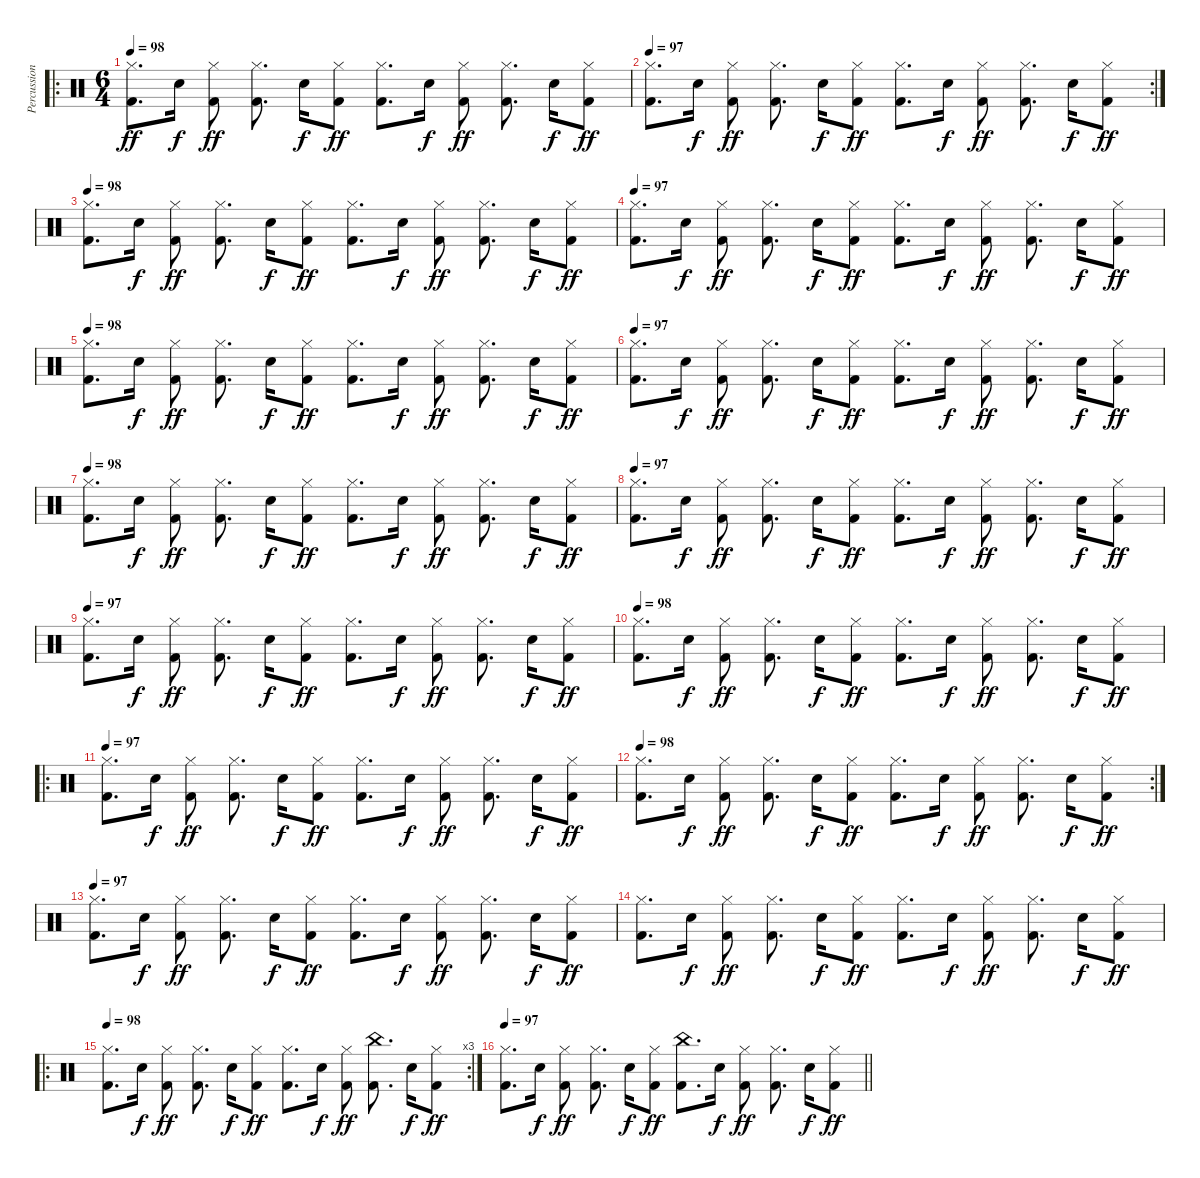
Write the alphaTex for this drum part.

\track ("Percussion" "Percussion") {instrument percussion}
\staff {score}
\articulation defaults
\ro
\ts (6 4)
\tempo 98
\clef neutral
\ks c
("Hi-Hat (closed)" "Kick (hit) 2").8{d dy ff} "Electric Snare (hit)".16{dy f} ("Hi-Hat (closed)" "Kick (hit) 2").8{dy ff beam split} ("Hi-Hat (closed)" "Kick (hit) 2").8{d} "Electric Snare (hit)".16{dy f} ("Hi-Hat (closed)" "Kick (hit) 2").8{dy ff} ("Hi-Hat (closed)" "Kick (hit) 2").8{d} "Electric Snare (hit)".16{dy f} ("Hi-Hat (closed)" "Kick (hit) 2").8{dy ff beam split} ("Hi-Hat (closed)" "Kick (hit) 2").8{d} "Electric Snare (hit)".16{dy f} ("Hi-Hat (closed)" "Kick (hit) 2").8{dy ff} |
\rc 2
\tempo 97
("Hi-Hat (closed)" "Kick (hit) 2").8{d} "Electric Snare (hit)".16{dy f} ("Hi-Hat (closed)" "Kick (hit) 2").8{dy ff beam split} ("Hi-Hat (closed)" "Kick (hit) 2").8{d} "Electric Snare (hit)".16{dy f} ("Hi-Hat (closed)" "Kick (hit) 2").8{dy ff} ("Hi-Hat (closed)" "Kick (hit) 2").8{d} "Electric Snare (hit)".16{dy f} ("Hi-Hat (closed)" "Kick (hit) 2").8{dy ff beam split} ("Hi-Hat (closed)" "Kick (hit) 2").8{d} "Electric Snare (hit)".16{dy f} ("Hi-Hat (closed)" "Kick (hit) 2").8{dy ff} |
\tempo 98
("Hi-Hat (closed)" "Kick (hit) 2").8{d} "Electric Snare (hit)".16{dy f} ("Hi-Hat (closed)" "Kick (hit) 2").8{dy ff beam split} ("Hi-Hat (closed)" "Kick (hit) 2").8{d} "Electric Snare (hit)".16{dy f} ("Hi-Hat (closed)" "Kick (hit) 2").8{dy ff} ("Hi-Hat (closed)" "Kick (hit) 2").8{d} "Electric Snare (hit)".16{dy f} ("Hi-Hat (closed)" "Kick (hit) 2").8{dy ff beam split} ("Hi-Hat (closed)" "Kick (hit) 2").8{d} "Electric Snare (hit)".16{dy f} ("Hi-Hat (closed)" "Kick (hit) 2").8{dy ff} |
\tempo 97
("Hi-Hat (closed)" "Kick (hit) 2").8{d} "Electric Snare (hit)".16{dy f} ("Hi-Hat (closed)" "Kick (hit) 2").8{dy ff beam split} ("Hi-Hat (closed)" "Kick (hit) 2").8{d} "Electric Snare (hit)".16{dy f} ("Hi-Hat (closed)" "Kick (hit) 2").8{dy ff} ("Hi-Hat (closed)" "Kick (hit) 2").8{d} "Electric Snare (hit)".16{dy f} ("Hi-Hat (closed)" "Kick (hit) 2").8{dy ff beam split} ("Hi-Hat (closed)" "Kick (hit) 2").8{d} "Electric Snare (hit)".16{dy f} ("Hi-Hat (closed)" "Kick (hit) 2").8{dy ff} |
\tempo 98
("Hi-Hat (closed)" "Kick (hit) 2").8{d} "Electric Snare (hit)".16{dy f} ("Hi-Hat (closed)" "Kick (hit) 2").8{dy ff beam split} ("Hi-Hat (closed)" "Kick (hit) 2").8{d} "Electric Snare (hit)".16{dy f} ("Hi-Hat (closed)" "Kick (hit) 2").8{dy ff} ("Hi-Hat (closed)" "Kick (hit) 2").8{d} "Electric Snare (hit)".16{dy f} ("Hi-Hat (closed)" "Kick (hit) 2").8{dy ff beam split} ("Hi-Hat (closed)" "Kick (hit) 2").8{d} "Electric Snare (hit)".16{dy f} ("Hi-Hat (closed)" "Kick (hit) 2").8{dy ff} |
\tempo 97
("Hi-Hat (closed)" "Kick (hit) 2").8{d} "Electric Snare (hit)".16{dy f} ("Hi-Hat (closed)" "Kick (hit) 2").8{dy ff beam split} ("Hi-Hat (closed)" "Kick (hit) 2").8{d} "Electric Snare (hit)".16{dy f} ("Hi-Hat (closed)" "Kick (hit) 2").8{dy ff} ("Hi-Hat (closed)" "Kick (hit) 2").8{d} "Electric Snare (hit)".16{dy f} ("Hi-Hat (closed)" "Kick (hit) 2").8{dy ff beam split} ("Hi-Hat (closed)" "Kick (hit) 2").8{d} "Electric Snare (hit)".16{dy f} ("Hi-Hat (closed)" "Kick (hit) 2").8{dy ff} |
\tempo 98
("Hi-Hat (closed)" "Kick (hit) 2").8{d} "Electric Snare (hit)".16{dy f} ("Hi-Hat (closed)" "Kick (hit) 2").8{dy ff beam split} ("Hi-Hat (closed)" "Kick (hit) 2").8{d} "Electric Snare (hit)".16{dy f} ("Hi-Hat (closed)" "Kick (hit) 2").8{dy ff} ("Hi-Hat (closed)" "Kick (hit) 2").8{d} "Electric Snare (hit)".16{dy f} ("Hi-Hat (closed)" "Kick (hit) 2").8{dy ff beam split} ("Hi-Hat (closed)" "Kick (hit) 2").8{d} "Electric Snare (hit)".16{dy f} ("Hi-Hat (closed)" "Kick (hit) 2").8{dy ff} |
\tempo 97
("Hi-Hat (closed)" "Kick (hit) 2").8{d} "Electric Snare (hit)".16{dy f} ("Hi-Hat (closed)" "Kick (hit) 2").8{dy ff beam split} ("Hi-Hat (closed)" "Kick (hit) 2").8{d} "Electric Snare (hit)".16{dy f} ("Hi-Hat (closed)" "Kick (hit) 2").8{dy ff} ("Hi-Hat (closed)" "Kick (hit) 2").8{d} "Electric Snare (hit)".16{dy f} ("Hi-Hat (closed)" "Kick (hit) 2").8{dy ff beam split} ("Hi-Hat (closed)" "Kick (hit) 2").8{d} "Electric Snare (hit)".16{dy f} ("Hi-Hat (closed)" "Kick (hit) 2").8{dy ff} |
\tempo 97
("Hi-Hat (closed)" "Kick (hit) 2").8{d} "Electric Snare (hit)".16{dy f} ("Hi-Hat (closed)" "Kick (hit) 2").8{dy ff beam split} ("Hi-Hat (closed)" "Kick (hit) 2").8{d} "Electric Snare (hit)".16{dy f} ("Hi-Hat (closed)" "Kick (hit) 2").8{dy ff} ("Hi-Hat (closed)" "Kick (hit) 2").8{d} "Electric Snare (hit)".16{dy f} ("Hi-Hat (closed)" "Kick (hit) 2").8{dy ff beam split} ("Hi-Hat (closed)" "Kick (hit) 2").8{d} "Electric Snare (hit)".16{dy f} ("Hi-Hat (closed)" "Kick (hit) 2").8{dy ff} |
\tempo 98
("Hi-Hat (closed)" "Kick (hit) 2").8{d} "Electric Snare (hit)".16{dy f} ("Hi-Hat (closed)" "Kick (hit) 2").8{dy ff beam split} ("Hi-Hat (closed)" "Kick (hit) 2").8{d} "Electric Snare (hit)".16{dy f} ("Hi-Hat (closed)" "Kick (hit) 2").8{dy ff} ("Hi-Hat (closed)" "Kick (hit) 2").8{d} "Electric Snare (hit)".16{dy f} ("Hi-Hat (closed)" "Kick (hit) 2").8{dy ff beam split} ("Hi-Hat (closed)" "Kick (hit) 2").8{d} "Electric Snare (hit)".16{dy f} ("Hi-Hat (closed)" "Kick (hit) 2").8{dy ff} |
\ro
\tempo 97
("Hi-Hat (closed)" "Kick (hit) 2").8{d} "Electric Snare (hit)".16{dy f} ("Hi-Hat (closed)" "Kick (hit) 2").8{dy ff beam split} ("Hi-Hat (closed)" "Kick (hit) 2").8{d} "Electric Snare (hit)".16{dy f} ("Hi-Hat (closed)" "Kick (hit) 2").8{dy ff} ("Hi-Hat (closed)" "Kick (hit) 2").8{d} "Electric Snare (hit)".16{dy f} ("Hi-Hat (closed)" "Kick (hit) 2").8{dy ff beam split} ("Hi-Hat (closed)" "Kick (hit) 2").8{d} "Electric Snare (hit)".16{dy f} ("Hi-Hat (closed)" "Kick (hit) 2").8{dy ff} |
\rc 2
\tempo 98
("Hi-Hat (closed)" "Kick (hit) 2").8{d} "Electric Snare (hit)".16{dy f} ("Hi-Hat (closed)" "Kick (hit) 2").8{dy ff beam split} ("Hi-Hat (closed)" "Kick (hit) 2").8{d} "Electric Snare (hit)".16{dy f} ("Hi-Hat (closed)" "Kick (hit) 2").8{dy ff} ("Hi-Hat (closed)" "Kick (hit) 2").8{d} "Electric Snare (hit)".16{dy f} ("Hi-Hat (closed)" "Kick (hit) 2").8{dy ff beam split} ("Hi-Hat (closed)" "Kick (hit) 2").8{d} "Electric Snare (hit)".16{dy f} ("Hi-Hat (closed)" "Kick (hit) 2").8{dy ff} |
\tempo 97
("Hi-Hat (closed)" "Kick (hit) 2").8{d} "Electric Snare (hit)".16{dy f} ("Hi-Hat (closed)" "Kick (hit) 2").8{dy ff beam split} ("Hi-Hat (closed)" "Kick (hit) 2").8{d} "Electric Snare (hit)".16{dy f} ("Hi-Hat (closed)" "Kick (hit) 2").8{dy ff} ("Hi-Hat (closed)" "Kick (hit) 2").8{d} "Electric Snare (hit)".16{dy f} ("Hi-Hat (closed)" "Kick (hit) 2").8{dy ff beam split} ("Hi-Hat (closed)" "Kick (hit) 2").8{d} "Electric Snare (hit)".16{dy f} ("Hi-Hat (closed)" "Kick (hit) 2").8{dy ff} |
("Hi-Hat (closed)" "Kick (hit) 2").8{d} "Electric Snare (hit)".16{dy f} ("Hi-Hat (closed)" "Kick (hit) 2").8{dy ff beam split} ("Hi-Hat (closed)" "Kick (hit) 2").8{d} "Electric Snare (hit)".16{dy f} ("Hi-Hat (closed)" "Kick (hit) 2").8{dy ff} ("Hi-Hat (closed)" "Kick (hit) 2").8{d} "Electric Snare (hit)".16{dy f} ("Hi-Hat (closed)" "Kick (hit) 2").8{dy ff beam split} ("Hi-Hat (closed)" "Kick (hit) 2").8{d} "Electric Snare (hit)".16{dy f} ("Hi-Hat (closed)" "Kick (hit) 2").8{dy ff} |
\ro
\rc 3
\tempo 98
("Hi-Hat (closed)" "Kick (hit) 2").8{d} "Electric Snare (hit)".16{dy f} ("Hi-Hat (closed)" "Kick (hit) 2").8{dy ff beam split} ("Hi-Hat (closed)" "Kick (hit) 2").8{d} "Electric Snare (hit)".16{dy f} ("Hi-Hat (closed)" "Kick (hit) 2").8{dy ff} ("Hi-Hat (closed)" "Kick (hit) 2").8{d} "Electric Snare (hit)".16{dy f} ("Hi-Hat (closed)" "Kick (hit) 2").8{dy ff beam split} ("China (hit)" "Kick (hit) 2").8{d} "Electric Snare (hit)".16{dy f} ("Hi-Hat (closed)" "Kick (hit) 2").8{dy ff} |
\tempo 97
\barLineRight lightlight
("Hi-Hat (closed)" "Kick (hit) 2").8{d} "Electric Snare (hit)".16{dy f} ("Hi-Hat (closed)" "Kick (hit) 2").8{dy ff beam split} ("Hi-Hat (closed)" "Kick (hit) 2").8{d} "Electric Snare (hit)".16{dy f} ("Hi-Hat (closed)" "Kick (hit) 2").8{dy ff} ("China (hit)" "Kick (hit) 2").8{d} "Electric Snare (hit)".16{dy f} ("Hi-Hat (closed)" "Kick (hit) 2").8{dy ff beam split} ("Hi-Hat (closed)" "Kick (hit) 2").8{d} "Electric Snare (hit)".16{dy f} ("Hi-Hat (closed)" "Kick (hit) 2").8{dy ff}
